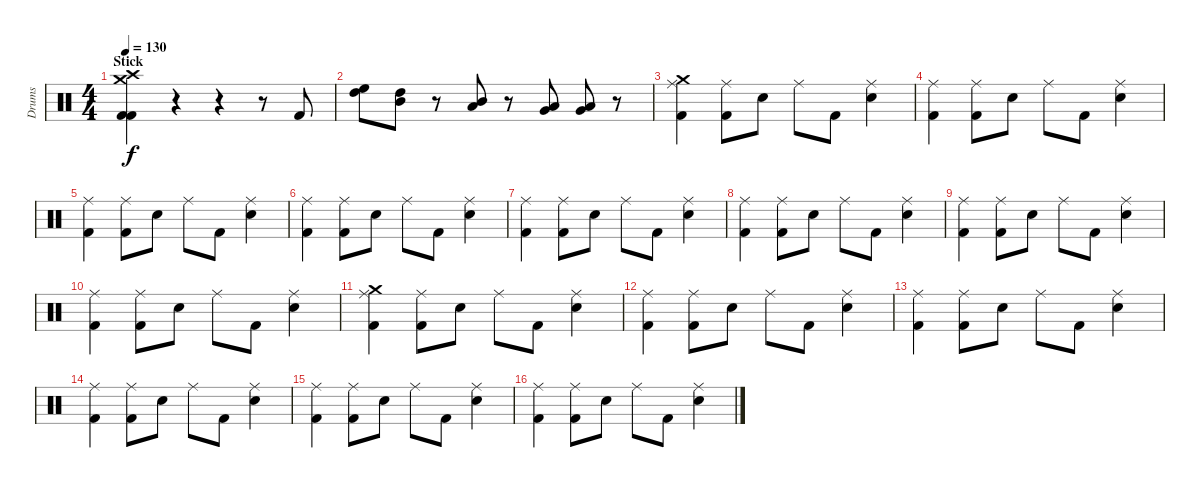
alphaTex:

\track ("Drums" "Drums") {instrument percussion}
\staff {score}
\articulation defaults
\ts (4 4)
\section ("" "Stick")
\tempo 130
\clef neutral
\ks c
("Crash high (hit)" "Crash medium (hit)" "Kick (hit) 2" "Kick (hit) 2").4{dy f} r.4 r.4 r.8 "Kick (hit) 2".8 |
("High Tom (hit)" "High Floor Tom (hit)").8 ("Mid Tom (hit)" "High Tom (hit)").8 r.8 ("Low Tom (hit)" "Mid Tom (hit)").8 r.8 ("Very Low Tom (hit)" "Low Tom (hit)").8 ("Low Floor Tom (hit)" "Very Low Tom (hit)").8 r.8 |
("Ride (middle)" "Crash medium (hit)" "Kick (hit) 2").4 ("Ride (middle)" "Kick (hit) 2").8 "Snare (hit) 2".8 "Ride (middle)".8 "Kick (hit) 2".8 ("Ride (middle)" "Snare (hit) 2").4 |
("Ride (middle)" "Kick (hit) 2").4 ("Ride (middle)" "Kick (hit) 2").8 "Snare (hit) 2".8 "Ride (middle)".8 "Kick (hit) 2".8 ("Ride (middle)" "Snare (hit) 2").4 |
("Ride (middle)" "Kick (hit) 2").4 ("Ride (middle)" "Kick (hit) 2").8 "Snare (hit) 2".8 "Ride (middle)".8 "Kick (hit) 2".8 ("Ride (middle)" "Snare (hit) 2").4 |
("Ride (middle)" "Kick (hit) 2").4 ("Ride (middle)" "Kick (hit) 2").8 "Snare (hit) 2".8 "Ride (middle)".8 "Kick (hit) 2".8 ("Ride (middle)" "Snare (hit) 2").4 |
("Ride (middle)" "Kick (hit) 2").4 ("Ride (middle)" "Kick (hit) 2").8 "Snare (hit) 2".8 "Ride (middle)".8 "Kick (hit) 2".8 ("Ride (middle)" "Snare (hit) 2").4 |
("Ride (middle)" "Kick (hit) 2").4 ("Ride (middle)" "Kick (hit) 2").8 "Snare (hit) 2".8 "Ride (middle)".8 "Kick (hit) 2".8 ("Ride (middle)" "Snare (hit) 2").4 |
("Ride (middle)" "Kick (hit) 2").4 ("Ride (middle)" "Kick (hit) 2").8 "Snare (hit) 2".8 "Ride (middle)".8 "Kick (hit) 2".8 ("Ride (middle)" "Snare (hit) 2").4 |
("Ride (middle)" "Kick (hit) 2").4 ("Ride (middle)" "Kick (hit) 2").8 "Snare (hit) 2".8 "Ride (middle)".8 "Kick (hit) 2".8 ("Ride (middle)" "Snare (hit) 2").4 |
("Ride (middle)" "Crash medium (hit)" "Kick (hit) 2").4 ("Ride (middle)" "Kick (hit) 2").8 "Snare (hit) 2".8 "Ride (middle)".8 "Kick (hit) 2".8 ("Ride (middle)" "Snare (hit) 2").4 |
("Ride (middle)" "Kick (hit) 2").4 ("Ride (middle)" "Kick (hit) 2").8 "Snare (hit) 2".8 "Ride (middle)".8 "Kick (hit) 2".8 ("Ride (middle)" "Snare (hit) 2").4 |
("Ride (middle)" "Kick (hit) 2").4 ("Ride (middle)" "Kick (hit) 2").8 "Snare (hit) 2".8 "Ride (middle)".8 "Kick (hit) 2".8 ("Ride (middle)" "Snare (hit) 2").4 |
("Ride (middle)" "Kick (hit) 2").4 ("Ride (middle)" "Kick (hit) 2").8 "Snare (hit) 2".8 "Ride (middle)".8 "Kick (hit) 2".8 ("Ride (middle)" "Snare (hit) 2").4 |
("Ride (middle)" "Kick (hit) 2").4 ("Ride (middle)" "Kick (hit) 2").8 "Snare (hit) 2".8 "Ride (middle)".8 "Kick (hit) 2".8 ("Ride (middle)" "Snare (hit) 2").4 |
("Ride (middle)" "Kick (hit) 2").4 ("Ride (middle)" "Kick (hit) 2").8 "Snare (hit) 2".8 "Ride (middle)".8 "Kick (hit) 2".8 ("Ride (middle)" "Snare (hit) 2").4
